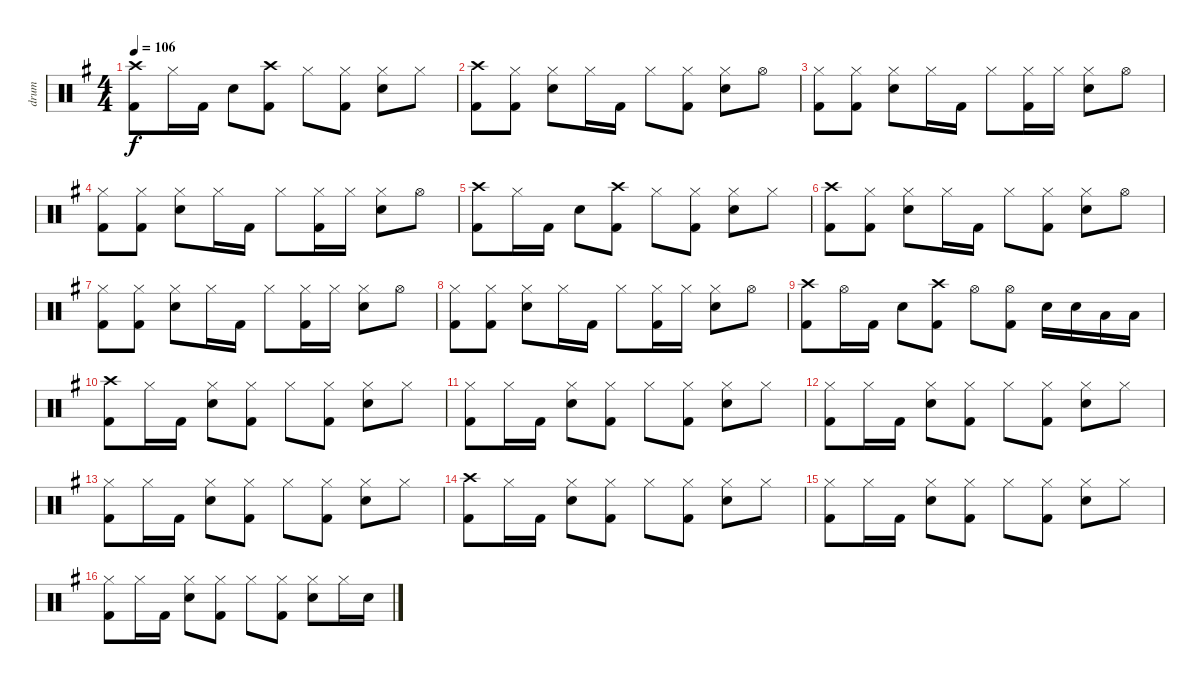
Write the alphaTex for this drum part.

\track ("drum" "drum") {instrument percussion}
\staff {score}
\articulation defaults
\ts (4 4)
\tempo 106
\clef neutral
\ks eminor
("Crash high (hit)" "Kick (hit) 2").8{dy f} "Hi-Hat (closed)".16 "Kick (hit) 2".16 "Electric Snare (hit)".8 ("Crash high (hit)" "Kick (hit) 2").8 "Hi-Hat (closed)".8 ("Hi-Hat (closed)" "Kick (hit) 2").8 ("Hi-Hat (closed)" "Electric Snare (hit)").8 "Hi-Hat (closed)".8 |
("Crash high (hit)" "Kick (hit) 2").8 ("Hi-Hat (closed)" "Kick (hit) 2").8 ("Hi-Hat (closed)" "Electric Snare (hit)").8 "Hi-Hat (closed)".16 "Kick (hit) 2".16 "Hi-Hat (closed)".8 ("Hi-Hat (closed)" "Kick (hit) 2").8 ("Hi-Hat (closed)" "Electric Snare (hit)").8 "Hi-Hat (open)".8 |
("Hi-Hat (closed)" "Kick (hit) 2").8 ("Hi-Hat (closed)" "Kick (hit) 2").8 ("Hi-Hat (closed)" "Electric Snare (hit)").8 "Hi-Hat (closed)".16 "Kick (hit) 2".16 "Hi-Hat (closed)".8 ("Hi-Hat (closed)" "Kick (hit) 2").16 "Hi-Hat (closed)".16 ("Hi-Hat (closed)" "Electric Snare (hit)").8 "Hi-Hat (open)".8 |
("Hi-Hat (closed)" "Kick (hit) 2").8 ("Hi-Hat (closed)" "Kick (hit) 2").8 ("Hi-Hat (closed)" "Electric Snare (hit)").8 "Hi-Hat (closed)".16 "Kick (hit) 2".16 "Hi-Hat (closed)".8 ("Hi-Hat (closed)" "Kick (hit) 2").16 "Hi-Hat (closed)".16 ("Hi-Hat (closed)" "Electric Snare (hit)").8 "Hi-Hat (open)".8 |
("Crash high (hit)" "Kick (hit) 2").8 "Hi-Hat (closed)".16 "Kick (hit) 2".16 "Electric Snare (hit)".8 ("Crash high (hit)" "Kick (hit) 2").8 "Hi-Hat (closed)".8 ("Hi-Hat (closed)" "Kick (hit) 2").8 ("Hi-Hat (closed)" "Electric Snare (hit)").8 "Hi-Hat (closed)".8 |
("Crash high (hit)" "Kick (hit) 2").8 ("Hi-Hat (closed)" "Kick (hit) 2").8 ("Hi-Hat (closed)" "Electric Snare (hit)").8 "Hi-Hat (closed)".16 "Kick (hit) 2".16 "Hi-Hat (closed)".8 ("Hi-Hat (closed)" "Kick (hit) 2").8 ("Hi-Hat (closed)" "Electric Snare (hit)").8 "Hi-Hat (open)".8 |
("Hi-Hat (closed)" "Kick (hit) 2").8 ("Hi-Hat (closed)" "Kick (hit) 2").8 ("Hi-Hat (closed)" "Electric Snare (hit)").8 "Hi-Hat (closed)".16 "Kick (hit) 2".16 "Hi-Hat (closed)".8 ("Hi-Hat (closed)" "Kick (hit) 2").16 "Hi-Hat (closed)".16 ("Hi-Hat (closed)" "Electric Snare (hit)").8 "Hi-Hat (open)".8 |
("Hi-Hat (closed)" "Kick (hit) 2").8 ("Hi-Hat (closed)" "Kick (hit) 2").8 ("Hi-Hat (closed)" "Electric Snare (hit)").8 "Hi-Hat (closed)".16 "Kick (hit) 2".16 "Hi-Hat (closed)".8 ("Hi-Hat (closed)" "Kick (hit) 2").16 "Hi-Hat (closed)".16 ("Hi-Hat (closed)" "Electric Snare (hit)").8 "Hi-Hat (open)".8 |
("Crash high (hit)" "Kick (hit) 2").8 "Hi-Hat (open)".16 "Kick (hit) 2".16 "Electric Snare (hit)".8 ("Crash high (hit)" "Kick (hit) 2").8 "Hi-Hat (open)".8 ("Hi-Hat (open)" "Kick (hit) 2").8 "Electric Snare (hit)".16 "Electric Snare (hit)".16 "Low Tom (hit)".16 "Low Tom (hit)".16 |
("Crash high (hit)" "Kick (hit) 2").8 "Hi-Hat (closed)".16 "Kick (hit) 2".16 ("Hi-Hat (closed)" "Electric Snare (hit)").8 ("Hi-Hat (closed)" "Kick (hit) 2").8 "Hi-Hat (closed)".8 ("Hi-Hat (closed)" "Kick (hit) 2").8 ("Hi-Hat (closed)" "Electric Snare (hit)").8 "Hi-Hat (closed)".8 |
("Hi-Hat (closed)" "Kick (hit) 2").8 "Hi-Hat (closed)".16 "Kick (hit) 2".16 ("Hi-Hat (closed)" "Electric Snare (hit)").8 ("Hi-Hat (closed)" "Kick (hit) 2").8 "Hi-Hat (closed)".8 ("Hi-Hat (closed)" "Kick (hit) 2").8 ("Hi-Hat (closed)" "Electric Snare (hit)").8 "Hi-Hat (closed)".8 |
("Hi-Hat (closed)" "Kick (hit) 2").8 "Hi-Hat (closed)".16 "Kick (hit) 2".16 ("Hi-Hat (closed)" "Electric Snare (hit)").8 ("Hi-Hat (closed)" "Kick (hit) 2").8 "Hi-Hat (closed)".8 ("Hi-Hat (closed)" "Kick (hit) 2").8 ("Hi-Hat (closed)" "Electric Snare (hit)").8 "Hi-Hat (closed)".8 |
("Hi-Hat (closed)" "Kick (hit) 2").8 "Hi-Hat (closed)".16 "Kick (hit) 2".16 ("Hi-Hat (closed)" "Electric Snare (hit)").8 ("Hi-Hat (closed)" "Kick (hit) 2").8 "Hi-Hat (closed)".8 ("Hi-Hat (closed)" "Kick (hit) 2").8 ("Hi-Hat (closed)" "Electric Snare (hit)").8 "Hi-Hat (closed)".8 |
("Crash high (hit)" "Kick (hit) 2").8 "Hi-Hat (closed)".16 "Kick (hit) 2".16 ("Hi-Hat (closed)" "Electric Snare (hit)").8 ("Hi-Hat (closed)" "Kick (hit) 2").8 "Hi-Hat (closed)".8 ("Hi-Hat (closed)" "Kick (hit) 2").8 ("Hi-Hat (closed)" "Electric Snare (hit)").8 "Hi-Hat (closed)".8 |
("Hi-Hat (closed)" "Kick (hit) 2").8 "Hi-Hat (closed)".16 "Kick (hit) 2".16 ("Hi-Hat (closed)" "Electric Snare (hit)").8 ("Hi-Hat (closed)" "Kick (hit) 2").8 "Hi-Hat (closed)".8 ("Hi-Hat (closed)" "Kick (hit) 2").8 ("Hi-Hat (closed)" "Electric Snare (hit)").8 "Hi-Hat (closed)".8 |
("Hi-Hat (closed)" "Kick (hit) 2").8 "Hi-Hat (closed)".16 "Kick (hit) 2".16 ("Hi-Hat (closed)" "Electric Snare (hit)").8 ("Hi-Hat (closed)" "Kick (hit) 2").8 "Hi-Hat (closed)".8 ("Hi-Hat (closed)" "Kick (hit) 2").8 ("Hi-Hat (closed)" "Electric Snare (hit)").8 "Hi-Hat (closed)".16 "Electric Snare (hit)".16
